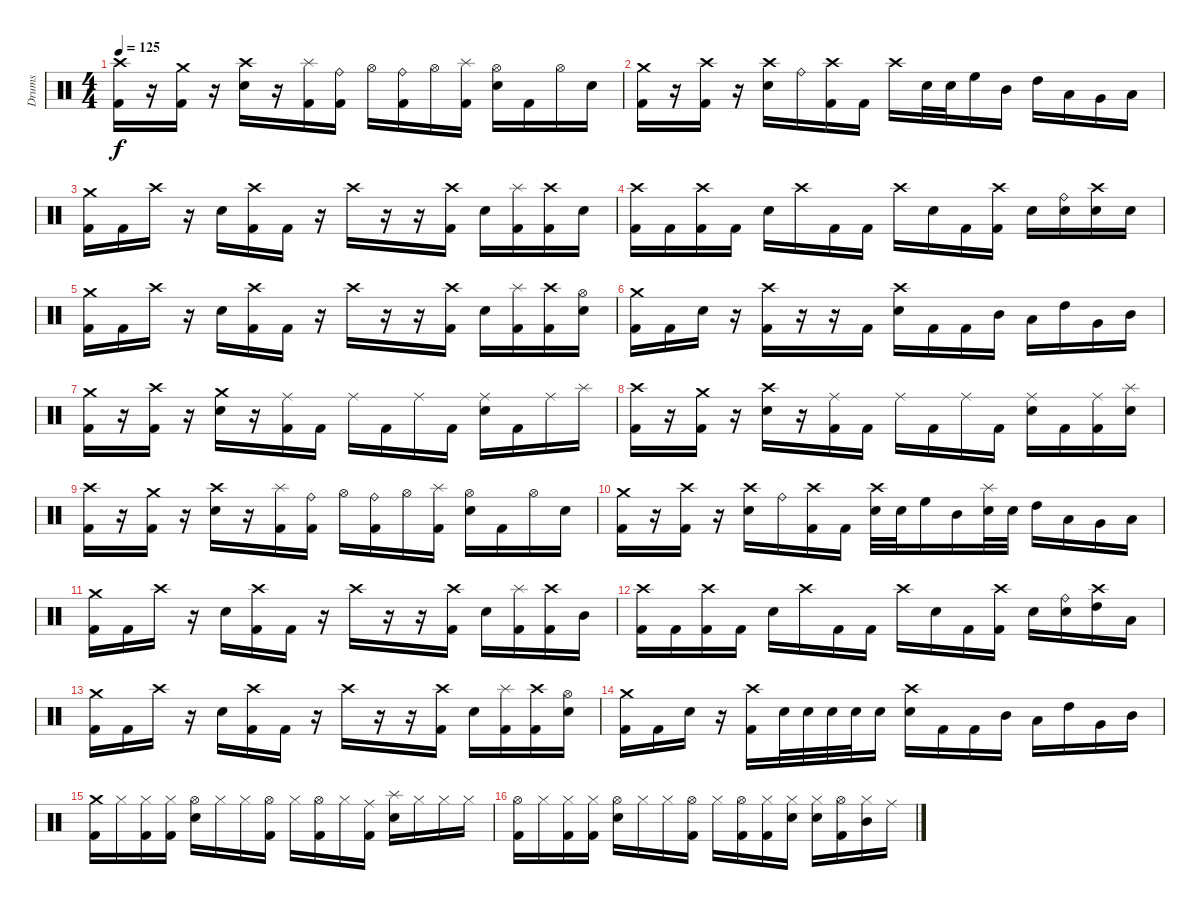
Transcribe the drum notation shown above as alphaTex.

\track ("Drums" "Drums") {instrument percussion}
\staff {score}
\articulation defaults
\ts (4 4)
\tempo 125
\clef neutral
\ks c
("Crash high (hit)" "Kick (hit) 2").16{dy f} r.16 ("Crash medium (hit)" "Kick (hit) 2").16 r.16 ("Crash high (hit)" "Electric Snare (hit)").16 r.16 ("Splash (hit)" "Kick (hit) 2").16 ("Ride (bell)" "Kick (hit) 2").16 "Hi-Hat (open)".16 ("Ride (bell)" "Kick (hit) 2").16 "Hi-Hat (open)".16 ("Splash (hit)" "Kick (hit) 2").16 ("Hi-Hat (open)" "Electric Snare (hit)").16 "Kick (hit) 2".16 "Hi-Hat (open)".16 "Electric Snare (hit)".16 |
("Crash medium (hit)" "Kick (hit) 2").16 r.16 ("Crash high (hit)" "Kick (hit) 2").16 r.16 ("Crash high (hit)" "Electric Snare (hit)").16 "Ride (bell)".16 ("Crash high (hit)" "Kick (hit) 2").16 "Kick (hit) 2".16 "Crash high (hit)".16 "Electric Snare (hit)".32 "Electric Snare (hit)".32 "High Floor Tom (hit)".16 "Mid Tom (hit)".16 "High Tom (hit)".16 "Low Tom (hit)".16 "Very Low Tom (hit)".16 "Low Floor Tom (hit)".16 |
("Crash medium (hit)" "Kick (hit) 2").16 "Kick (hit) 2".16 "Crash high (hit)".16 r.16 "Electric Snare (hit)".16 ("Crash high (hit)" "Kick (hit) 2").16 "Kick (hit) 2".16 r.16 "Crash high (hit)".16 r.16 r.16 ("Crash high (hit)" "Kick (hit) 2").16 "Electric Snare (hit)".16 ("Splash (hit)" "Kick (hit) 2").16 ("Crash high (hit)" "Kick (hit) 2").16 "Electric Snare (hit)".16 |
("Crash high (hit)" "Kick (hit) 2").16 "Kick (hit) 2".16 ("Crash high (hit)" "Kick (hit) 2").16 "Kick (hit) 2".16 "Electric Snare (hit)".16 "Crash high (hit)".16 "Kick (hit) 2".16 "Kick (hit) 2".16 "Crash high (hit)".16 "Electric Snare (hit)".16 "Kick (hit) 2".16 ("Crash high (hit)" "Kick (hit) 2").16 "Electric Snare (hit)".16 ("Ride (bell)" "Electric Snare (hit)").16 ("Crash high (hit)" "Electric Snare (hit)").16 "Electric Snare (hit)".16 |
("Crash medium (hit)" "Kick (hit) 2").16 "Kick (hit) 2".16 "Crash high (hit)".16 r.16 "Electric Snare (hit)".16 ("Crash high (hit)" "Kick (hit) 2").16 "Kick (hit) 2".16 r.16 "Crash high (hit)".16 r.16 r.16 ("Crash high (hit)" "Kick (hit) 2").16 "Electric Snare (hit)".16 ("Splash (hit)" "Kick (hit) 2").16 ("Crash high (hit)" "Kick (hit) 2").16 ("Hi-Hat (open)" "Electric Snare (hit)").16 |
("Crash medium (hit)" "Kick (hit) 2").16 "Kick (hit) 2".16 "Electric Snare (hit)".16 r.16 ("Crash high (hit)" "Kick (hit) 2").16 r.16 r.16 "Kick (hit) 2".16 ("Crash high (hit)" "Electric Snare (hit)").16 "Kick (hit) 2".16 "Kick (hit) 2".16 "Mid Tom (hit)".16 "Low Tom (hit)".16 "High Tom (hit)".16 "Very Low Tom (hit)".16 "Mid Tom (hit)".16 |
("Crash medium (hit)" "Kick (hit) 2").16 r.16 ("Crash high (hit)" "Kick (hit) 2").16 r.16 ("Crash medium (hit)" "Electric Snare (hit)").16 r.16 ("Ride (middle)" "Kick (hit) 2").16 "Kick (hit) 2".16 "Ride (middle)".16 "Kick (hit) 2".16 "Ride (middle)".16 "Kick (hit) 2".16 ("Ride (middle)" "Electric Snare (hit)").16 "Kick (hit) 2".16 "Ride (middle)".16 "Splash (hit)".16 |
("Crash high (hit)" "Kick (hit) 2").16 r.16 ("Crash medium (hit)" "Kick (hit) 2").16 r.16 ("Crash high (hit)" "Electric Snare (hit)").16 r.16 ("Ride (middle)" "Kick (hit) 2").16 "Kick (hit) 2".16 "Ride (middle)".16 "Kick (hit) 2".16 "Ride (middle)".16 "Kick (hit) 2".16 ("Ride (middle)" "Electric Snare (hit)").16 "Kick (hit) 2".16 ("Ride (middle)" "Kick (hit) 2").16 ("Splash (hit)" "Electric Snare (hit)").16 |
("Crash high (hit)" "Kick (hit) 2").16 r.16 ("Crash medium (hit)" "Kick (hit) 2").16 r.16 ("Crash high (hit)" "Electric Snare (hit)").16 r.16 ("Splash (hit)" "Kick (hit) 2").16 ("Ride (bell)" "Kick (hit) 2").16 "Hi-Hat (open)".16 ("Ride (bell)" "Kick (hit) 2").16 "Hi-Hat (open)".16 ("Splash (hit)" "Kick (hit) 2").16 ("Hi-Hat (open)" "Electric Snare (hit)").16 "Kick (hit) 2".16 "Hi-Hat (open)".16 "Electric Snare (hit)".16 |
("Crash medium (hit)" "Kick (hit) 2").16 r.16 ("Crash high (hit)" "Kick (hit) 2").16 r.16 ("Crash high (hit)" "Electric Snare (hit)").16 "Ride (bell)".16 ("Crash high (hit)" "Kick (hit) 2").16 "Kick (hit) 2".16 ("Crash high (hit)" "Electric Snare (hit)").32 "Electric Snare (hit)".32 "High Floor Tom (hit)".16 "Mid Tom (hit)".16 ("Splash (hit)" "Electric Snare (hit)").32 "Electric Snare (hit)".32 "High Tom (hit)".16 "Low Tom (hit)".16 "Very Low Tom (hit)".16 "Low Floor Tom (hit)".16 |
("Crash medium (hit)" "Kick (hit) 2").16 "Kick (hit) 2".16 "Crash high (hit)".16 r.16 "Electric Snare (hit)".16 ("Crash high (hit)" "Kick (hit) 2").16 "Kick (hit) 2".16 r.16 "Crash high (hit)".16 r.16 r.16 ("Crash high (hit)" "Kick (hit) 2").16 "Electric Snare (hit)".16 ("Splash (hit)" "Kick (hit) 2").16 ("Crash high (hit)" "Kick (hit) 2").16 "Mid Tom (hit)".16 |
("Crash high (hit)" "Kick (hit) 2").16 "Kick (hit) 2".16 ("Crash high (hit)" "Kick (hit) 2").16 "Kick (hit) 2".16 "Electric Snare (hit)".16 "Crash high (hit)".16 "Kick (hit) 2".16 "Kick (hit) 2".16 "Crash high (hit)".16 "Electric Snare (hit)".16 "Kick (hit) 2".16 ("Crash high (hit)" "Kick (hit) 2").16 "Electric Snare (hit)".16 ("Ride (bell)" "Electric Snare (hit)").16 ("Crash high (hit)" "High Tom (hit)").16 "Low Tom (hit)".16 |
("Crash medium (hit)" "Kick (hit) 2").16 "Kick (hit) 2".16 "Crash high (hit)".16 r.16 "Electric Snare (hit)".16 ("Crash high (hit)" "Kick (hit) 2").16 "Kick (hit) 2".16 r.16 "Crash high (hit)".16 r.16 r.16 ("Crash high (hit)" "Kick (hit) 2").16 "Electric Snare (hit)".16 ("Splash (hit)" "Kick (hit) 2").16 ("Crash high (hit)" "Kick (hit) 2").16 ("Hi-Hat (open)" "Electric Snare (hit)").16 |
("Crash medium (hit)" "Kick (hit) 2").16 "Kick (hit) 2".16 "Electric Snare (hit)".16 r.16 ("Crash high (hit)" "Kick (hit) 2").16 "Electric Snare (hit)".32 "Electric Snare (hit)".32 "Electric Snare (hit)".32 "Electric Snare (hit)".32 "Electric Snare (hit)".16 ("Crash high (hit)" "Electric Snare (hit)").16 "Kick (hit) 2".16 "Kick (hit) 2".16 "Mid Tom (hit)".16 "Low Tom (hit)".16 "High Tom (hit)".16 "Very Low Tom (hit)".16 "Mid Tom (hit)".16 |
("Crash medium (hit)" "Kick (hit) 2").16 "Hi-Hat (closed)".16 ("Hi-Hat (closed)" "Kick (hit) 2").16 ("Hi-Hat (closed)" "Kick (hit) 2").16 ("Hi-Hat (open)" "Electric Snare (hit)").16 "Hi-Hat (closed)".16 "Hi-Hat (closed)".16 ("Hi-Hat (open)" "Kick (hit) 2").16 "Hi-Hat (closed)".16 ("Hi-Hat (open)" "Kick (hit) 2").16 "Hi-Hat (closed)".16 ("Ride (middle)" "Kick (hit) 2").16 ("Splash (hit)" "Electric Snare (hit)").16 "Hi-Hat (closed)".16 "Hi-Hat (closed)".16 "Hi-Hat (closed)".16 |
("Hi-Hat (open)" "Kick (hit) 2").16 "Hi-Hat (closed)".16 ("Hi-Hat (closed)" "Kick (hit) 2").16 ("Hi-Hat (closed)" "Kick (hit) 2").16 ("Hi-Hat (open)" "Electric Snare (hit)").16 "Hi-Hat (closed)".16 "Hi-Hat (closed)".16 ("Hi-Hat (open)" "Kick (hit) 2").16 "Hi-Hat (closed)".16 ("Hi-Hat (open)" "Kick (hit) 2").16 ("Hi-Hat (closed)" "Kick (hit) 2").16 ("Hi-Hat (closed)" "Electric Snare (hit)").16 ("Hi-Hat (closed)" "Electric Snare (hit)").16 ("Hi-Hat (open)" "Kick (hit) 2").16 ("Hi-Hat (closed)" "Mid Tom (hit)").16 "Ride (middle)".16
